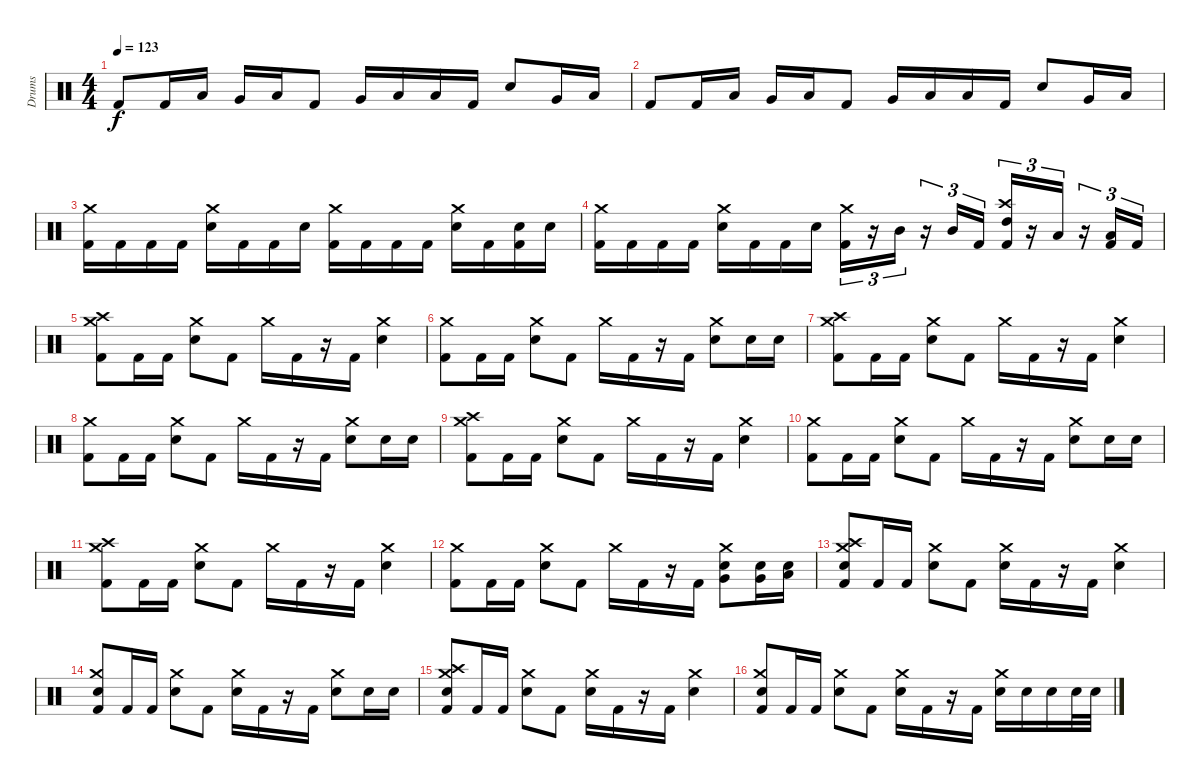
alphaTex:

\track ("Drums" "Drums") {instrument percussion}
\staff {score}
\articulation defaults
\ts (4 4)
\tempo 123
\clef neutral
\ks c "Kick (hit) 2".8{dy f} "Kick (hit) 2".16 "Low Tom (hit)".16 "Very Low Tom (hit)".16 "Low Tom (hit)".16 "Kick (hit) 2".8 "Very Low Tom (hit)".16 "Low Tom (hit)".16 "Low Floor Tom (hit)".16 "Kick (hit) 2".16 "Snare (hit) 2".8 "Very Low Tom (hit)".16 "Low Tom (hit)".16
|
"Kick (hit) 2".8 "Kick (hit) 2".16 "Low Tom (hit)".16 "Very Low Tom (hit)".16 "Low Tom (hit)".16 "Kick (hit) 2".8 "Very Low Tom (hit)".16 "Low Tom (hit)".16 "Low Floor Tom (hit)".16 "Kick (hit) 2".16 "Snare (hit) 2".8 "Very Low Tom (hit)".16 "Low Tom (hit)".16 |
("Crash medium (hit)" "Kick (hit) 2").16 "Kick (hit) 2".16 "Kick (hit) 2".16 "Kick (hit) 2".16 ("Crash medium (hit)" "Snare (hit) 2").16 "Kick (hit) 2".16 "Kick (hit) 2".16 "Snare (hit) 2".16 ("Crash medium (hit)" "Kick (hit) 2").16 "Kick (hit) 2".16 "Kick (hit) 2".16 "Kick (hit) 2".16 ("Crash medium (hit)" "Snare (hit) 2").16 "Kick (hit) 2".16 ("Snare (hit) 2" "Kick (hit) 2").16 "Snare (hit) 2".16 |
("Crash medium (hit)" "Kick (hit) 2").16 "Kick (hit) 2".16 "Kick (hit) 2".16 "Kick (hit) 2".16 ("Crash medium (hit)" "Snare (hit) 2").16 "Kick (hit) 2".16 "Kick (hit) 2".16 "Snare (hit) 2".16 ("Crash medium (hit)" "Kick (hit) 2").16{tu (3 2)} r.16{tu (3 2)} "Mid Tom (hit)".16{tu (3 2)} r.16{tu (3 2)} "Mid Tom (hit)".16{tu (3 2)} "Kick (hit) 2".16{tu (3 2)} ("Crash high (hit)" "High Tom (hit)" "Kick (hit) 2").16{tu (3 2)} r.16{tu (3 2)} "Low Tom (hit)".16{tu (3 2)} r.16{tu (3 2)} ("Low Tom (hit)" "Kick (hit) 2").16{tu (3 2)} "Kick (hit) 2".16{tu (3 2)} |
("Crash medium (hit)" "Crash high (hit)" "Kick (hit) 2").8 "Kick (hit) 2".16 "Kick (hit) 2".16 ("Crash medium (hit)" "Electric Snare (hit)").8 "Kick (hit) 2".8 "Crash medium (hit)".16 "Kick (hit) 2".16 r.16 "Kick (hit) 2".16 ("Crash medium (hit)" "Electric Snare (hit)").4 |
("Crash medium (hit)" "Kick (hit) 2").8 "Kick (hit) 2".16 "Kick (hit) 2".16 ("Crash medium (hit)" "Electric Snare (hit)").8 "Kick (hit) 2".8 "Crash medium (hit)".16 "Kick (hit) 2".16 r.16 "Kick (hit) 2".16 ("Crash medium (hit)" "Electric Snare (hit)").8 "Electric Snare (hit)".16 "Electric Snare (hit)".16 |
("Crash medium (hit)" "Crash high (hit)" "Kick (hit) 2").8 "Kick (hit) 2".16 "Kick (hit) 2".16 ("Crash medium (hit)" "Electric Snare (hit)").8 "Kick (hit) 2".8 "Crash medium (hit)".16 "Kick (hit) 2".16 r.16 "Kick (hit) 2".16 ("Crash medium (hit)" "Electric Snare (hit)").4 |
("Crash medium (hit)" "Kick (hit) 2").8 "Kick (hit) 2".16 "Kick (hit) 2".16 ("Crash medium (hit)" "Electric Snare (hit)").8 "Kick (hit) 2".8 "Crash medium (hit)".16 "Kick (hit) 2".16 r.16 "Kick (hit) 2".16 ("Crash medium (hit)" "Electric Snare (hit)").8 "Electric Snare (hit)".16 "Electric Snare (hit)".16 |
("Crash medium (hit)" "Crash high (hit)" "Kick (hit) 2").8 "Kick (hit) 2".16 "Kick (hit) 2".16 ("Crash medium (hit)" "Electric Snare (hit)").8 "Kick (hit) 2".8 "Crash medium (hit)".16 "Kick (hit) 2".16 r.16 "Kick (hit) 2".16 ("Crash medium (hit)" "Electric Snare (hit)").4 |
("Crash medium (hit)" "Kick (hit) 2").8 "Kick (hit) 2".16 "Kick (hit) 2".16 ("Crash medium (hit)" "Electric Snare (hit)").8 "Kick (hit) 2".8 "Crash medium (hit)".16 "Kick (hit) 2".16 r.16 "Kick (hit) 2".16 ("Crash medium (hit)" "Electric Snare (hit)").8 "Electric Snare (hit)".16 "Electric Snare (hit)".16 |
("Crash medium (hit)" "Crash high (hit)" "Kick (hit) 2").8 "Kick (hit) 2".16 "Kick (hit) 2".16 ("Crash medium (hit)" "Electric Snare (hit)").8 "Kick (hit) 2".8 "Crash medium (hit)".16 "Kick (hit) 2".16 r.16 "Kick (hit) 2".16 ("Crash medium (hit)" "Electric Snare (hit)").4 |
("Crash medium (hit)" "Kick (hit) 2").8 "Kick (hit) 2".16 "Kick (hit) 2".16 ("Crash medium (hit)" "Electric Snare (hit)").8 "Kick (hit) 2".8 "Crash medium (hit)".16 "Kick (hit) 2".16 r.16 "Kick (hit) 2".16 ("Crash medium (hit)" "Snare (hit) 2" "Very Low Tom (hit)").8 ("Snare (hit) 2" "Very Low Tom (hit)").16 ("Snare (hit) 2" "Low Tom (hit)").16 |
("Crash medium (hit)" "Crash high (hit)" "Electric Snare (hit)" "Kick (hit) 2").8 "Kick (hit) 2".16 "Kick (hit) 2".16 ("Crash medium (hit)" "Electric Snare (hit)").8 "Kick (hit) 2".8 ("Crash medium (hit)" "Electric Snare (hit)").16 "Kick (hit) 2".16 r.16 "Kick (hit) 2".16 ("Crash medium (hit)" "Electric Snare (hit)").4 |
("Crash medium (hit)" "Electric Snare (hit)" "Kick (hit) 2").8 "Kick (hit) 2".16 "Kick (hit) 2".16 ("Crash medium (hit)" "Electric Snare (hit)").8 "Kick (hit) 2".8 ("Crash medium (hit)" "Electric Snare (hit)").16 "Kick (hit) 2".16 r.16 "Kick (hit) 2".16 ("Crash medium (hit)" "Electric Snare (hit)").8 "Electric Snare (hit)".16 "Electric Snare (hit)".16 |
("Crash medium (hit)" "Crash high (hit)" "Electric Snare (hit)" "Kick (hit) 2").8 "Kick (hit) 2".16 "Kick (hit) 2".16 ("Crash medium (hit)" "Electric Snare (hit)").8 "Kick (hit) 2".8 ("Crash medium (hit)" "Electric Snare (hit)").16 "Kick (hit) 2".16 r.16 "Kick (hit) 2".16 ("Crash medium (hit)" "Electric Snare (hit)").4 |
("Crash medium (hit)" "Electric Snare (hit)" "Kick (hit) 2").8 "Kick (hit) 2".16 "Kick (hit) 2".16 ("Crash medium (hit)" "Electric Snare (hit)").8 "Kick (hit) 2".8 ("Crash medium (hit)" "Electric Snare (hit)").16 "Kick (hit) 2".16 r.16 "Kick (hit) 2".16 ("Crash medium (hit)" "Electric Snare (hit)").16 "Electric Snare (hit)".16 "Electric Snare (hit)".16 "Electric Snare (hit)".32 "Electric Snare (hit)".32
